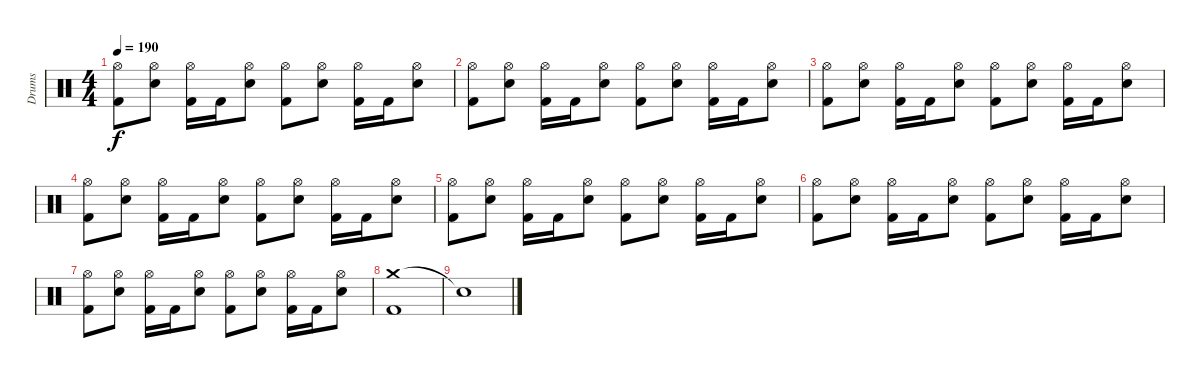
\track ("Drums" "Drums") {instrument percussion}
\staff {score}
\articulation defaults
\ts (4 4)
\tempo 190
\clef neutral
\ks c
("Hi-Hat (open)" "Kick (hit) 2").8{dy f} ("Hi-Hat (open)" "Snare (hit) 2").8 ("Hi-Hat (open)" "Kick (hit) 2").16 "Kick (hit) 2".16 ("Hi-Hat (open)" "Snare (hit) 2").8 ("Hi-Hat (open)" "Kick (hit) 2").8 ("Hi-Hat (open)" "Snare (hit) 2").8 ("Hi-Hat (open)" "Kick (hit) 2").16 "Kick (hit) 2".16 ("Hi-Hat (open)" "Snare (hit) 2").8 |
("Hi-Hat (open)" "Kick (hit) 2").8 ("Hi-Hat (open)" "Snare (hit) 2").8 ("Hi-Hat (open)" "Kick (hit) 2").16 "Kick (hit) 2".16 ("Hi-Hat (open)" "Snare (hit) 2").8 ("Hi-Hat (open)" "Kick (hit) 2").8 ("Hi-Hat (open)" "Snare (hit) 2").8 ("Hi-Hat (open)" "Kick (hit) 2").16 "Kick (hit) 2".16 ("Hi-Hat (open)" "Snare (hit) 2").8 |
("Hi-Hat (open)" "Kick (hit) 2").8 ("Hi-Hat (open)" "Snare (hit) 2").8 ("Hi-Hat (open)" "Kick (hit) 2").16 "Kick (hit) 2".16 ("Hi-Hat (open)" "Snare (hit) 2").8 ("Hi-Hat (open)" "Kick (hit) 2").8 ("Hi-Hat (open)" "Snare (hit) 2").8 ("Hi-Hat (open)" "Kick (hit) 2").16 "Kick (hit) 2".16 ("Hi-Hat (open)" "Snare (hit) 2").8 |
("Hi-Hat (open)" "Kick (hit) 2").8 ("Hi-Hat (open)" "Snare (hit) 2").8 ("Hi-Hat (open)" "Kick (hit) 2").16 "Kick (hit) 2".16 ("Hi-Hat (open)" "Snare (hit) 2").8 ("Hi-Hat (open)" "Kick (hit) 2").8 ("Hi-Hat (open)" "Snare (hit) 2").8 ("Hi-Hat (open)" "Kick (hit) 2").16 "Kick (hit) 2".16 ("Hi-Hat (open)" "Snare (hit) 2").8 |
("Hi-Hat (open)" "Kick (hit) 2").8 ("Hi-Hat (open)" "Snare (hit) 2").8 ("Hi-Hat (open)" "Kick (hit) 2").16 "Kick (hit) 2".16 ("Hi-Hat (open)" "Snare (hit) 2").8 ("Hi-Hat (open)" "Kick (hit) 2").8 ("Hi-Hat (open)" "Snare (hit) 2").8 ("Hi-Hat (open)" "Kick (hit) 2").16 "Kick (hit) 2".16 ("Hi-Hat (open)" "Snare (hit) 2").8 |
("Hi-Hat (open)" "Kick (hit) 2").8 ("Hi-Hat (open)" "Snare (hit) 2").8 ("Hi-Hat (open)" "Kick (hit) 2").16 "Kick (hit) 2".16 ("Hi-Hat (open)" "Snare (hit) 2").8 ("Hi-Hat (open)" "Kick (hit) 2").8 ("Hi-Hat (open)" "Snare (hit) 2").8 ("Hi-Hat (open)" "Kick (hit) 2").16 "Kick (hit) 2".16 ("Hi-Hat (open)" "Snare (hit) 2").8 |
("Hi-Hat (open)" "Kick (hit) 2").8 ("Hi-Hat (open)" "Snare (hit) 2").8 ("Hi-Hat (open)" "Kick (hit) 2").16 "Kick (hit) 2".16 ("Hi-Hat (open)" "Snare (hit) 2").8 ("Hi-Hat (open)" "Kick (hit) 2").8 ("Hi-Hat (open)" "Snare (hit) 2").8 ("Hi-Hat (open)" "Kick (hit) 2").16 "Kick (hit) 2".16 ("Hi-Hat (open)" "Snare (hit) 2").8 |
("Crash medium (hit)" "Kick (hit) 2").1 |
"Snare (hit)"{t}.1
